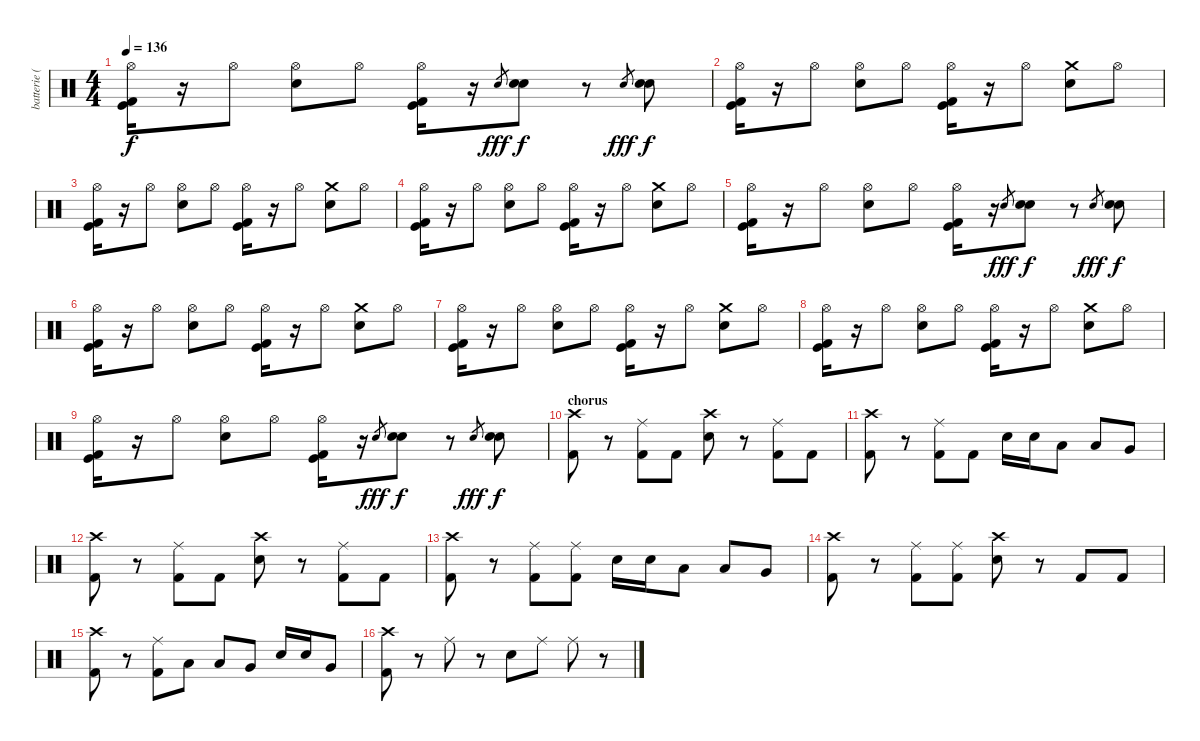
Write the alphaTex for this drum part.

\track ("batterie (J.Castillo)" "batterie (") {instrument percussion}
\staff {score}
\articulation defaults
\ts (4 4)
\tempo 136
\clef neutral
\ks c
("Hi-Hat (open)" "Kick (hit) 2" "Kick (hit)").16{dy f} r.16 "Hi-Hat (open)".8 ("Hi-Hat (open)" "Electric Snare (hit)").8 "Hi-Hat (open)".8 ("Hi-Hat (open)" "Kick (hit) 2" "Kick (hit)").16 r.16 "Electric Snare (hit)"{h}.8{gr dy fff} ("Electric Snare (hit)" "Electric Snare (hit)").8{dy f} r.8 "Electric Snare (hit)".8{gr dy fff} ("Electric Snare (hit)" "Electric Snare (hit)").8{dy f} |
("Hi-Hat (open)" "Kick (hit) 2" "Kick (hit)").16 r.16 "Hi-Hat (open)".8 ("Hi-Hat (open)" "Electric Snare (hit)").8 "Hi-Hat (open)".8 ("Hi-Hat (open)" "Kick (hit) 2" "Kick (hit)").16 r.16 "Hi-Hat (open)".8 ("Crash medium (hit)" "Electric Snare (hit)").8 "Hi-Hat (open)".8 |
("Hi-Hat (open)" "Kick (hit) 2" "Kick (hit)").16 r.16 "Hi-Hat (open)".8 ("Hi-Hat (open)" "Electric Snare (hit)").8 "Hi-Hat (open)".8 ("Hi-Hat (open)" "Kick (hit) 2" "Kick (hit)").16 r.16 "Hi-Hat (open)".8 ("Crash medium (hit)" "Electric Snare (hit)").8 "Hi-Hat (open)".8 |
("Hi-Hat (open)" "Kick (hit) 2" "Kick (hit)").16 r.16 "Hi-Hat (open)".8 ("Hi-Hat (open)" "Electric Snare (hit)").8 "Hi-Hat (open)".8 ("Hi-Hat (open)" "Kick (hit) 2" "Kick (hit)").16 r.16 "Hi-Hat (open)".8 ("Crash medium (hit)" "Electric Snare (hit)").8 "Hi-Hat (open)".8 |
("Hi-Hat (open)" "Kick (hit) 2" "Kick (hit)").16 r.16 "Hi-Hat (open)".8 ("Hi-Hat (open)" "Electric Snare (hit)").8 "Hi-Hat (open)".8 ("Hi-Hat (open)" "Kick (hit) 2" "Kick (hit)").16 r.16 "Electric Snare (hit)"{h}.8{gr dy fff} ("Electric Snare (hit)" "Electric Snare (hit)").8{dy f} r.8 "Electric Snare (hit)".8{gr dy fff} ("Electric Snare (hit)" "Electric Snare (hit)").8{dy f} |
("Hi-Hat (open)" "Kick (hit) 2" "Kick (hit)").16 r.16 "Hi-Hat (open)".8 ("Hi-Hat (open)" "Electric Snare (hit)").8 "Hi-Hat (open)".8 ("Hi-Hat (open)" "Kick (hit) 2" "Kick (hit)").16 r.16 "Hi-Hat (open)".8 ("Crash medium (hit)" "Electric Snare (hit)").8 "Hi-Hat (open)".8 |
("Hi-Hat (open)" "Kick (hit) 2" "Kick (hit)").16 r.16 "Hi-Hat (open)".8 ("Hi-Hat (open)" "Electric Snare (hit)").8 "Hi-Hat (open)".8 ("Hi-Hat (open)" "Kick (hit) 2" "Kick (hit)").16 r.16 "Hi-Hat (open)".8 ("Crash medium (hit)" "Electric Snare (hit)").8 "Hi-Hat (open)".8 |
("Hi-Hat (open)" "Kick (hit) 2" "Kick (hit)").16 r.16 "Hi-Hat (open)".8 ("Hi-Hat (open)" "Electric Snare (hit)").8 "Hi-Hat (open)".8 ("Hi-Hat (open)" "Kick (hit) 2" "Kick (hit)").16 r.16 "Hi-Hat (open)".8 ("Crash medium (hit)" "Electric Snare (hit)").8 "Hi-Hat (open)".8 |
("Hi-Hat (open)" "Kick (hit) 2" "Kick (hit)").16 r.16 "Hi-Hat (open)".8 ("Hi-Hat (open)" "Electric Snare (hit)").8 "Hi-Hat (open)".8 ("Hi-Hat (open)" "Kick (hit) 2" "Kick (hit)").16 r.16 "Electric Snare (hit)"{h}.8{gr dy fff} ("Electric Snare (hit)" "Electric Snare (hit)").8{dy f} r.8 "Electric Snare (hit)".8{gr dy fff} ("Electric Snare (hit)" "Electric Snare (hit)").8{dy f} |
\section ("" "chorus")
("Kick (hit) 2" "Crash high (hit)").8 r.8 ("Kick (hit) 2" "Ride (middle)").8 "Kick (hit) 2".8 ("Electric Snare (hit)" "Crash high (hit)").8 r.8 ("Kick (hit) 2" "Ride (middle)").8 "Kick (hit) 2".8 |
("Kick (hit) 2" "Crash high (hit)").8 r.8 ("Kick (hit) 2" "Ride (middle)").8 "Kick (hit) 2".8 "Electric Snare (hit)".16 "Electric Snare (hit)".16 "Low Tom (hit)".8 "Low Tom (hit)".8 "Very Low Tom (hit)".8 |
("Kick (hit) 2" "Crash high (hit)").8 r.8 ("Kick (hit) 2" "Ride (middle)").8 "Kick (hit) 2".8 ("Electric Snare (hit)" "Crash high (hit)").8 r.8 ("Kick (hit) 2" "Ride (middle)").8 "Kick (hit) 2".8 |
("Kick (hit) 2" "Crash high (hit)").8 r.8 ("Kick (hit) 2" "Ride (middle)").8 ("Kick (hit) 2" "Ride (middle)").8 "Electric Snare (hit)".16 "Electric Snare (hit)".16 "Low Tom (hit)".8 "Low Tom (hit)".8 "Very Low Tom (hit)".8 |
("Kick (hit) 2" "Crash high (hit)").8 r.8 ("Kick (hit) 2" "Ride (middle)").8 ("Kick (hit) 2" "Ride (middle)").8 ("Electric Snare (hit)" "Crash high (hit)").8 r.8 "Kick (hit) 2".8 "Kick (hit) 2".8 |
("Kick (hit) 2" "Crash high (hit)").8 r.8 ("Kick (hit) 2" "Ride (middle)").8 "Low Tom (hit)".8 "Low Tom (hit)".8 "Very Low Tom (hit)".8 "Electric Snare (hit)".16 "Electric Snare (hit)".16 "Very Low Tom (hit)".8 |
("Kick (hit) 2" "Crash high (hit)").8 r.8 "Ride (middle)".8 r.8 "Electric Snare (hit)".8 "Ride (middle)".8 "Ride (middle)".8 r.8
